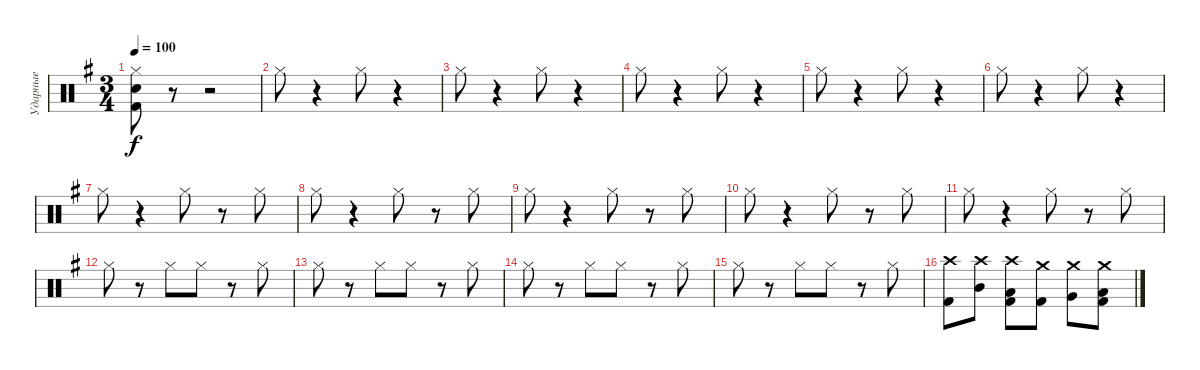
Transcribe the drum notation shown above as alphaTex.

\track ("Ударные" "Ударные") {instrument percussion}
\staff {score}
\articulation defaults
\ts (3 4)
\tempo 100
\clef neutral
\ks eminor
("Snare (hit) 2" "Kick (hit) 2" "Hi-Hat (closed)").8{dy f} r.8 r.2 |
"Hi-Hat (closed)".8 r.4 "Hi-Hat (closed)".8 r.4 |
"Hi-Hat (closed)".8 r.4 "Hi-Hat (closed)".8 r.4 |
"Hi-Hat (closed)".8 r.4 "Hi-Hat (closed)".8 r.4 |
"Hi-Hat (closed)".8 r.4 "Hi-Hat (closed)".8 r.4 |
"Hi-Hat (closed)".8 r.4 "Hi-Hat (closed)".8 r.4 |
"Hi-Hat (closed)".8 r.4 "Hi-Hat (closed)".8 r.8 "Hi-Hat (closed)".8 |
"Hi-Hat (closed)".8 r.4 "Hi-Hat (closed)".8 r.8 "Hi-Hat (closed)".8 |
"Hi-Hat (closed)".8 r.4 "Hi-Hat (closed)".8 r.8 "Hi-Hat (closed)".8 |
"Hi-Hat (closed)".8 r.4 "Hi-Hat (closed)".8 r.8 "Hi-Hat (closed)".8 |
"Hi-Hat (closed)".8 r.4 "Hi-Hat (closed)".8 r.8 "Hi-Hat (closed)".8 |
"Hi-Hat (closed)".8 r.8 "Hi-Hat (closed)".8 "Hi-Hat (closed)".8 r.8 "Hi-Hat (closed)".8 |
"Hi-Hat (closed)".8 r.8 "Hi-Hat (closed)".8 "Hi-Hat (closed)".8 r.8 "Hi-Hat (closed)".8 |
"Hi-Hat (closed)".8 r.8 "Hi-Hat (closed)".8 "Hi-Hat (closed)".8 r.8 "Hi-Hat (closed)".8 |
"Hi-Hat (closed)".8 r.8 "Hi-Hat (closed)".8 "Hi-Hat (closed)".8 r.8 "Hi-Hat (closed)".8 |
("Kick (hit) 2" "Crash high (hit)").8 ("Mid Tom (hit)" "Crash high (hit)").8 ("Low Tom (hit)" "Kick (hit) 2" "Crash high (hit)").8 ("Kick (hit) 2" "Crash medium (hit)").8 ("Very Low Tom (hit)" "Crash medium (hit)").8 ("Low Floor Tom (hit)" "Kick (hit) 2" "Crash medium (hit)").8
